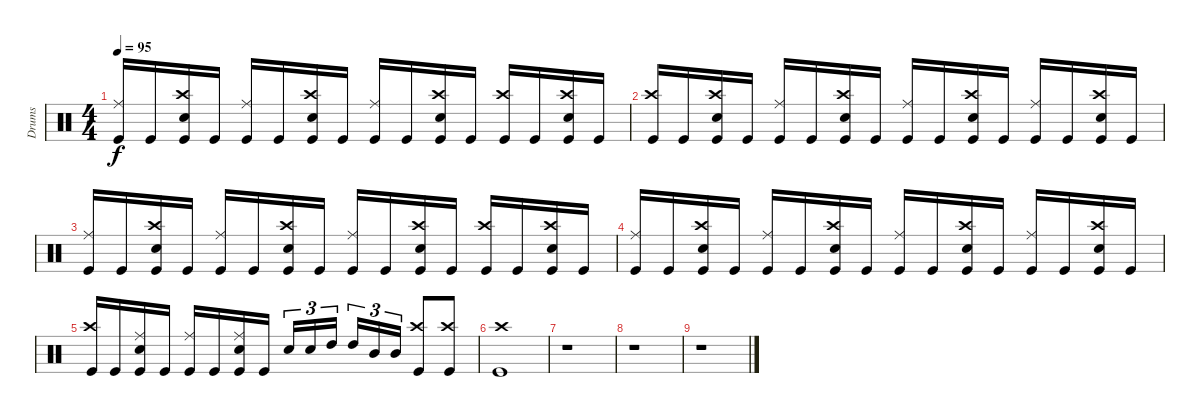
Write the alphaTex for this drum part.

\track ("Drums" "Drums") {instrument percussion}
\staff {score}
\articulation defaults
\ts (4 4)
\tempo 95
\clef neutral
\ks c
("Kick (hit)" "Ride (middle)").16{dy f beam Up} "Kick (hit)".16{beam Up} ("Kick (hit)" "Snare (hit) 2" "Crash high (hit)").16{beam Up} "Kick (hit)".16{beam Up} ("Kick (hit)" "Ride (middle)").16{beam Up} "Kick (hit)".16{beam Up} ("Kick (hit)" "Crash high (hit)" "Snare (hit) 2").16{beam Up} "Kick (hit)".16{beam Up} ("Kick (hit)" "Ride (middle)").16{beam Up} "Kick (hit)".16{beam Up} ("Kick (hit)" "Crash high (hit)" "Snare (hit) 2").16{beam Up} "Kick (hit)".16{beam Up} ("Kick (hit)" "Crash high (hit)").16{beam Up} "Kick (hit)".16{beam Up} ("Kick (hit)" "Crash high (hit)" "Snare (hit) 2").16{beam Up} "Kick (hit)".16{beam Up} |
("Kick (hit)" "Crash high (hit)").16{beam Up} "Kick (hit)".16{beam Up} ("Kick (hit)" "Snare (hit) 2" "Crash high (hit)").16{beam Up} "Kick (hit)".16{beam Up} ("Kick (hit)" "Ride (middle)").16{beam Up} "Kick (hit)".16{beam Up} ("Kick (hit)" "Crash high (hit)" "Snare (hit) 2").16{beam Up} "Kick (hit)".16{beam Up} ("Kick (hit)" "Ride (middle)").16{beam Up} "Kick (hit)".16{beam Up} ("Kick (hit)" "Crash high (hit)" "Snare (hit) 2").16{beam Up} "Kick (hit)".16{beam Up} ("Kick (hit)" "Ride (middle)").16{beam Up} "Kick (hit)".16{beam Up} ("Kick (hit)" "Crash high (hit)" "Snare (hit) 2").16{beam Up} "Kick (hit)".16{beam Up} |
("Kick (hit)" "Ride (middle)").16{beam Up} "Kick (hit)".16{beam Up} ("Kick (hit)" "Snare (hit) 2" "Crash high (hit)").16{beam Up} "Kick (hit)".16{beam Up} ("Kick (hit)" "Ride (middle)").16{beam Up} "Kick (hit)".16{beam Up} ("Kick (hit)" "Crash high (hit)" "Snare (hit) 2").16{beam Up} "Kick (hit)".16{beam Up} ("Kick (hit)" "Ride (middle)").16{beam Up} "Kick (hit)".16{beam Up} ("Kick (hit)" "Crash high (hit)" "Snare (hit) 2").16{beam Up} "Kick (hit)".16{beam Up} ("Kick (hit)" "Crash high (hit)").16{beam Up} "Kick (hit)".16{beam Up} ("Kick (hit)" "Crash high (hit)" "Snare (hit) 2").16{beam Up} "Kick (hit)".16{beam Up} |
("Kick (hit)" "Ride (middle)").16{beam Up} "Kick (hit)".16{beam Up} ("Kick (hit)" "Snare (hit) 2" "Crash high (hit)").16{beam Up} "Kick (hit)".16{beam Up} ("Kick (hit)" "Ride (middle)").16{beam Up} "Kick (hit)".16{beam Up} ("Kick (hit)" "Crash high (hit)" "Snare (hit) 2").16{beam Up} "Kick (hit)".16{beam Up} ("Kick (hit)" "Ride (middle)").16{beam Up} "Kick (hit)".16{beam Up} ("Kick (hit)" "Crash high (hit)" "Snare (hit) 2").16{beam Up} "Kick (hit)".16{beam Up} ("Kick (hit)" "Ride (middle)").16{beam Up} "Kick (hit)".16{beam Up} ("Kick (hit)" "Crash high (hit)" "Snare (hit) 2").16{beam Up} "Kick (hit)".16{beam Up} |
("Kick (hit)" "Crash high (hit)").16{beam Up} "Kick (hit)".16{beam Up} ("Kick (hit)" "Snare (hit) 2" "Ride (middle)").16{beam Up} "Kick (hit)".16{beam Up} ("Kick (hit)" "Ride (middle)").16{beam Up} "Kick (hit)".16{beam Up} ("Kick (hit)" "Ride (middle)" "Snare (hit) 2").16{beam Up} "Kick (hit)".16{beam Up} "Snare (hit) 2".16{tu (3 2) beam Up} "Snare (hit) 2".16{tu (3 2) beam Up} "High Tom (hit)".16{tu (3 2) beam Up beam splitsecondary} "High Tom (hit)".16{tu (3 2) beam Up} "Mid Tom (hit)".16{tu (3 2) beam Up} "Mid Tom (hit)".16{tu (3 2) beam Up} ("Kick (hit)" "Crash high (hit)").8{beam Up} ("Kick (hit)" "Crash high (hit)").8{beam Up} |
("Kick (hit)" "Crash high (hit)").1{beam Up} |
r.1 |
r.1 |
r.1
